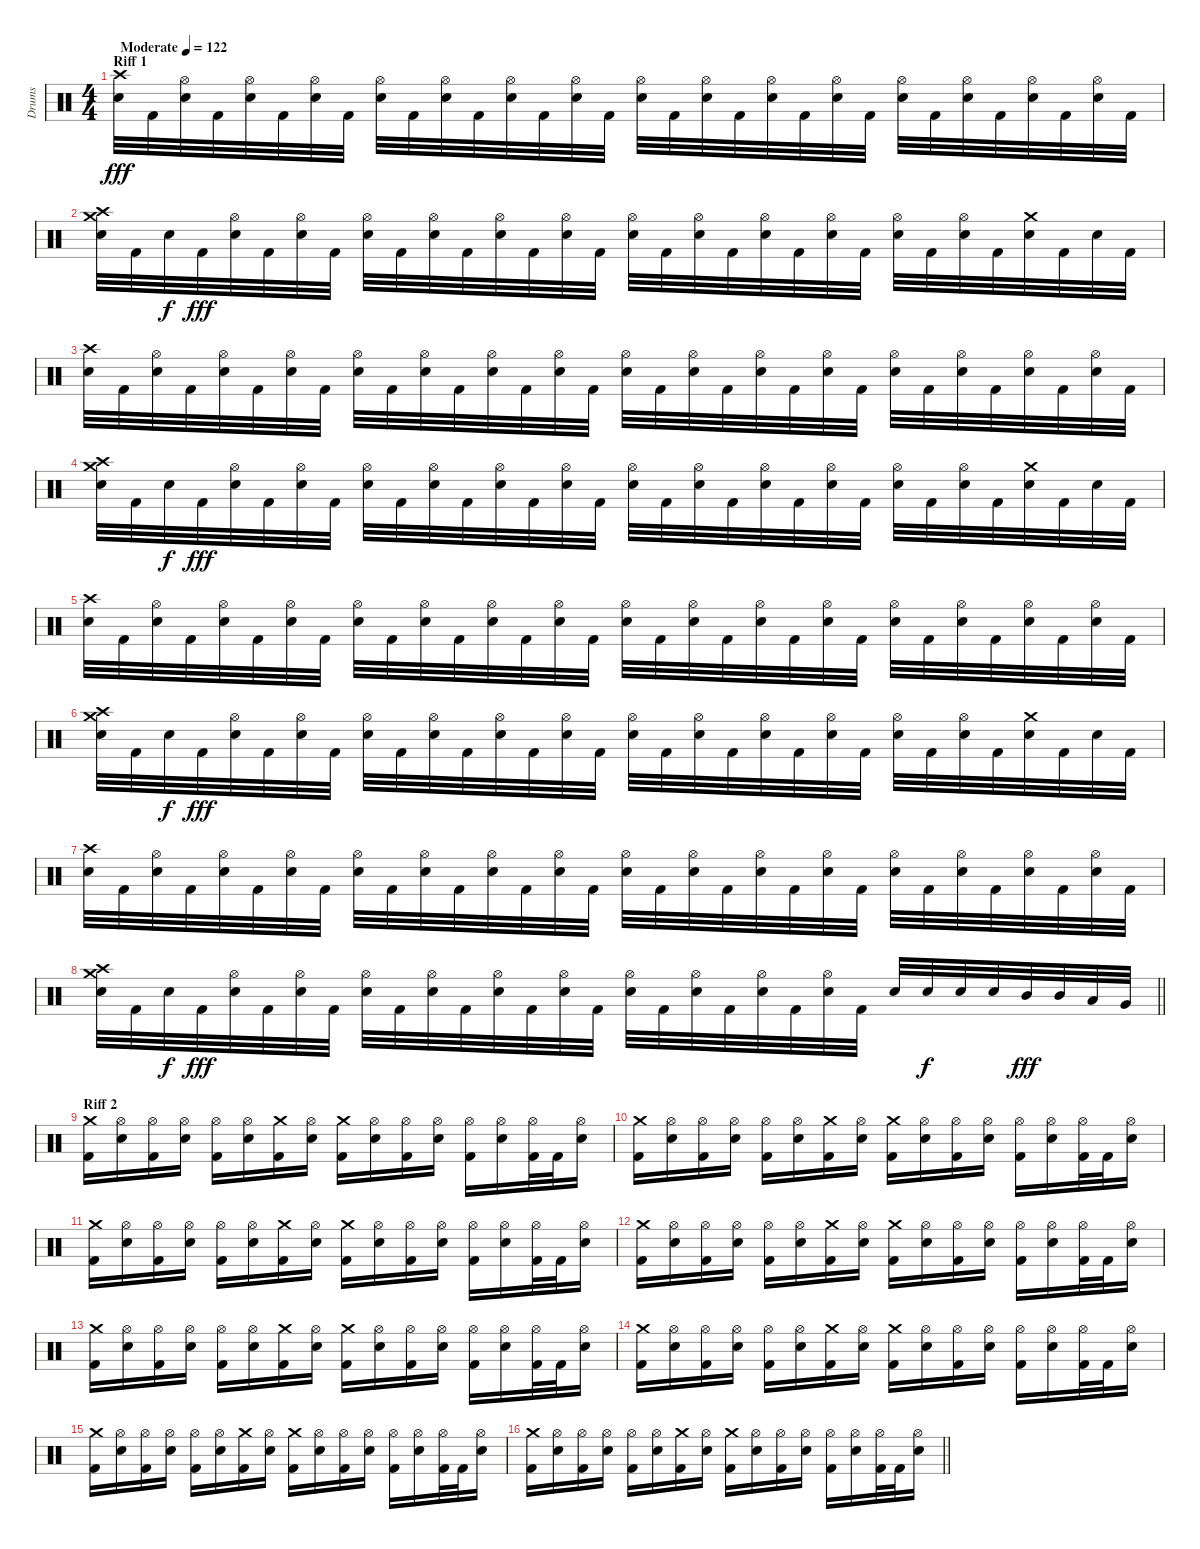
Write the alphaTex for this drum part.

\track ("Drums" "Drums") {instrument percussion}
\staff {score}
\articulation defaults
\ts (4 4)
\section ("" "Riff 1")
\tempo (122 "Moderate")
\clef neutral
\ks c
("Snare (hit) 2" "Crash high (hit)").32{dy fff} "Kick (hit) 2".32 ("Snare (hit) 2" "Hi-Hat (open)").32 "Kick (hit) 2".32 ("Hi-Hat (open)" "Snare (hit) 2").32 "Kick (hit) 2".32 ("Snare (hit) 2" "Hi-Hat (open)").32 "Kick (hit) 2".32 ("Hi-Hat (open)" "Snare (hit) 2").32 "Kick (hit) 2".32 ("Snare (hit) 2" "Hi-Hat (open)").32 "Kick (hit) 2".32 ("Snare (hit) 2" "Hi-Hat (open)").32 "Kick (hit) 2".32 ("Hi-Hat (open)" "Snare (hit) 2").32 "Kick (hit) 2".32 ("Snare (hit) 2" "Hi-Hat (open)").32 "Kick (hit) 2".32 ("Hi-Hat (open)" "Snare (hit) 2").32 "Kick (hit) 2".32 ("Snare (hit) 2" "Hi-Hat (open)").32 "Kick (hit) 2".32 ("Snare (hit) 2" "Hi-Hat (open)").32 "Kick (hit) 2".32 ("Hi-Hat (open)" "Snare (hit) 2").32 "Kick (hit) 2".32 ("Snare (hit) 2" "Hi-Hat (open)").32 "Kick (hit) 2".32 ("Hi-Hat (open)" "Snare (hit) 2").32 "Kick (hit) 2".32 ("Snare (hit) 2" "Hi-Hat (open)").32 "Kick (hit) 2".32 |
("Snare (hit) 2" "Crash high (hit)" "Crash medium (hit)").32 "Kick (hit) 2".32 "Snare (hit) 2".32{dy f} "Kick (hit) 2".32{dy fff} ("Snare (hit) 2" "Hi-Hat (open)").32 "Kick (hit) 2".32 ("Hi-Hat (open)" "Snare (hit) 2").32 "Kick (hit) 2".32 ("Snare (hit) 2" "Hi-Hat (open)").32 "Kick (hit) 2".32 ("Snare (hit) 2" "Hi-Hat (open)").32 "Kick (hit) 2".32 ("Hi-Hat (open)" "Snare (hit) 2").32 "Kick (hit) 2".32 ("Snare (hit) 2" "Hi-Hat (open)").32 "Kick (hit) 2".32 ("Hi-Hat (open)" "Snare (hit) 2").32 "Kick (hit) 2".32 ("Snare (hit) 2" "Hi-Hat (open)").32 "Kick (hit) 2".32 ("Snare (hit) 2" "Hi-Hat (open)").32 "Kick (hit) 2".32 ("Hi-Hat (open)" "Snare (hit) 2").32 "Kick (hit) 2".32 ("Snare (hit) 2" "Hi-Hat (open)").32 "Kick (hit) 2".32 ("Hi-Hat (open)" "Snare (hit) 2").32 "Kick (hit) 2".32 ("Snare (hit) 2" "Crash medium (hit)").32 "Kick (hit) 2".32 "Snare (hit) 2".32 "Kick (hit) 2".32 |
("Snare (hit) 2" "Crash high (hit)").32 "Kick (hit) 2".32 ("Snare (hit) 2" "Hi-Hat (open)").32 "Kick (hit) 2".32 ("Hi-Hat (open)" "Snare (hit) 2").32 "Kick (hit) 2".32 ("Snare (hit) 2" "Hi-Hat (open)").32 "Kick (hit) 2".32 ("Hi-Hat (open)" "Snare (hit) 2").32 "Kick (hit) 2".32 ("Snare (hit) 2" "Hi-Hat (open)").32 "Kick (hit) 2".32 ("Snare (hit) 2" "Hi-Hat (open)").32 "Kick (hit) 2".32 ("Hi-Hat (open)" "Snare (hit) 2").32 "Kick (hit) 2".32 ("Snare (hit) 2" "Hi-Hat (open)").32 "Kick (hit) 2".32 ("Hi-Hat (open)" "Snare (hit) 2").32 "Kick (hit) 2".32 ("Snare (hit) 2" "Hi-Hat (open)").32 "Kick (hit) 2".32 ("Snare (hit) 2" "Hi-Hat (open)").32 "Kick (hit) 2".32 ("Hi-Hat (open)" "Snare (hit) 2").32 "Kick (hit) 2".32 ("Snare (hit) 2" "Hi-Hat (open)").32 "Kick (hit) 2".32 ("Hi-Hat (open)" "Snare (hit) 2").32 "Kick (hit) 2".32 ("Snare (hit) 2" "Hi-Hat (open)").32 "Kick (hit) 2".32 |
("Snare (hit) 2" "Crash high (hit)" "Crash medium (hit)").32 "Kick (hit) 2".32 "Snare (hit) 2".32{dy f} "Kick (hit) 2".32{dy fff} ("Snare (hit) 2" "Hi-Hat (open)").32 "Kick (hit) 2".32 ("Hi-Hat (open)" "Snare (hit) 2").32 "Kick (hit) 2".32 ("Snare (hit) 2" "Hi-Hat (open)").32 "Kick (hit) 2".32 ("Snare (hit) 2" "Hi-Hat (open)").32 "Kick (hit) 2".32 ("Hi-Hat (open)" "Snare (hit) 2").32 "Kick (hit) 2".32 ("Snare (hit) 2" "Hi-Hat (open)").32 "Kick (hit) 2".32 ("Hi-Hat (open)" "Snare (hit) 2").32 "Kick (hit) 2".32 ("Snare (hit) 2" "Hi-Hat (open)").32 "Kick (hit) 2".32 ("Snare (hit) 2" "Hi-Hat (open)").32 "Kick (hit) 2".32 ("Hi-Hat (open)" "Snare (hit) 2").32 "Kick (hit) 2".32 ("Snare (hit) 2" "Hi-Hat (open)").32 "Kick (hit) 2".32 ("Hi-Hat (open)" "Snare (hit) 2").32 "Kick (hit) 2".32 ("Snare (hit) 2" "Crash medium (hit)").32 "Kick (hit) 2".32 "Snare (hit) 2".32 "Kick (hit) 2".32 |
("Snare (hit) 2" "Crash high (hit)").32 "Kick (hit) 2".32 ("Snare (hit) 2" "Hi-Hat (open)").32 "Kick (hit) 2".32 ("Hi-Hat (open)" "Snare (hit) 2").32 "Kick (hit) 2".32 ("Snare (hit) 2" "Hi-Hat (open)").32 "Kick (hit) 2".32 ("Hi-Hat (open)" "Snare (hit) 2").32 "Kick (hit) 2".32 ("Snare (hit) 2" "Hi-Hat (open)").32 "Kick (hit) 2".32 ("Snare (hit) 2" "Hi-Hat (open)").32 "Kick (hit) 2".32 ("Hi-Hat (open)" "Snare (hit) 2").32 "Kick (hit) 2".32 ("Snare (hit) 2" "Hi-Hat (open)").32 "Kick (hit) 2".32 ("Hi-Hat (open)" "Snare (hit) 2").32 "Kick (hit) 2".32 ("Snare (hit) 2" "Hi-Hat (open)").32 "Kick (hit) 2".32 ("Snare (hit) 2" "Hi-Hat (open)").32 "Kick (hit) 2".32 ("Hi-Hat (open)" "Snare (hit) 2").32 "Kick (hit) 2".32 ("Snare (hit) 2" "Hi-Hat (open)").32 "Kick (hit) 2".32 ("Hi-Hat (open)" "Snare (hit) 2").32 "Kick (hit) 2".32 ("Snare (hit) 2" "Hi-Hat (open)").32 "Kick (hit) 2".32 |
("Snare (hit) 2" "Crash high (hit)" "Crash medium (hit)").32 "Kick (hit) 2".32 "Snare (hit) 2".32{dy f} "Kick (hit) 2".32{dy fff} ("Snare (hit) 2" "Hi-Hat (open)").32 "Kick (hit) 2".32 ("Hi-Hat (open)" "Snare (hit) 2").32 "Kick (hit) 2".32 ("Snare (hit) 2" "Hi-Hat (open)").32 "Kick (hit) 2".32 ("Snare (hit) 2" "Hi-Hat (open)").32 "Kick (hit) 2".32 ("Hi-Hat (open)" "Snare (hit) 2").32 "Kick (hit) 2".32 ("Snare (hit) 2" "Hi-Hat (open)").32 "Kick (hit) 2".32 ("Hi-Hat (open)" "Snare (hit) 2").32 "Kick (hit) 2".32 ("Snare (hit) 2" "Hi-Hat (open)").32 "Kick (hit) 2".32 ("Snare (hit) 2" "Hi-Hat (open)").32 "Kick (hit) 2".32 ("Hi-Hat (open)" "Snare (hit) 2").32 "Kick (hit) 2".32 ("Snare (hit) 2" "Hi-Hat (open)").32 "Kick (hit) 2".32 ("Hi-Hat (open)" "Snare (hit) 2").32 "Kick (hit) 2".32 ("Snare (hit) 2" "Crash medium (hit)").32 "Kick (hit) 2".32 "Snare (hit) 2".32 "Kick (hit) 2".32 |
("Snare (hit) 2" "Crash high (hit)").32 "Kick (hit) 2".32 ("Snare (hit) 2" "Hi-Hat (open)").32 "Kick (hit) 2".32 ("Hi-Hat (open)" "Snare (hit) 2").32 "Kick (hit) 2".32 ("Snare (hit) 2" "Hi-Hat (open)").32 "Kick (hit) 2".32 ("Hi-Hat (open)" "Snare (hit) 2").32 "Kick (hit) 2".32 ("Snare (hit) 2" "Hi-Hat (open)").32 "Kick (hit) 2".32 ("Snare (hit) 2" "Hi-Hat (open)").32 "Kick (hit) 2".32 ("Hi-Hat (open)" "Snare (hit) 2").32 "Kick (hit) 2".32 ("Snare (hit) 2" "Hi-Hat (open)").32 "Kick (hit) 2".32 ("Hi-Hat (open)" "Snare (hit) 2").32 "Kick (hit) 2".32 ("Snare (hit) 2" "Hi-Hat (open)").32 "Kick (hit) 2".32 ("Snare (hit) 2" "Hi-Hat (open)").32 "Kick (hit) 2".32 ("Hi-Hat (open)" "Snare (hit) 2").32 "Kick (hit) 2".32 ("Snare (hit) 2" "Hi-Hat (open)").32 "Kick (hit) 2".32 ("Hi-Hat (open)" "Snare (hit) 2").32 "Kick (hit) 2".32 ("Snare (hit) 2" "Hi-Hat (open)").32 "Kick (hit) 2".32 |
\barLineRight lightlight
("Snare (hit) 2" "Crash high (hit)" "Crash medium (hit)").32 "Kick (hit) 2".32 "Snare (hit) 2".32{dy f} "Kick (hit) 2".32{dy fff} ("Snare (hit) 2" "Hi-Hat (open)").32 "Kick (hit) 2".32 ("Hi-Hat (open)" "Snare (hit) 2").32 "Kick (hit) 2".32 ("Snare (hit) 2" "Hi-Hat (open)").32 "Kick (hit) 2".32 ("Snare (hit) 2" "Hi-Hat (open)").32 "Kick (hit) 2".32 ("Hi-Hat (open)" "Snare (hit) 2").32 "Kick (hit) 2".32 ("Snare (hit) 2" "Hi-Hat (open)").32 "Kick (hit) 2".32 ("Hi-Hat (open)" "Snare (hit) 2").32 "Kick (hit) 2".32 ("Snare (hit) 2" "Hi-Hat (open)").32 "Kick (hit) 2".32 ("Snare (hit) 2" "Hi-Hat (open)").32 "Kick (hit) 2".32 ("Hi-Hat (open)" "Snare (hit) 2").32 "Kick (hit) 2".32 "Snare (hit) 2".32 "Snare (hit) 2".32{dy f} "Snare (hit) 2".32 "Snare (hit) 2".32 "Mid Tom (hit)".32{dy fff} "Mid Tom (hit)".32 "Low Tom (hit)".32 "Very Low Tom (hit)".32 |
\section ("" "Riff 2")
("Kick (hit) 2" "Crash medium (hit)").16 ("Snare (hit) 2" "Hi-Hat (open)").16 ("Kick (hit) 2" "Hi-Hat (open)").16 ("Snare (hit) 2" "Hi-Hat (open)").16 ("Kick (hit) 2" "Hi-Hat (open)").16 ("Snare (hit) 2" "Hi-Hat (open)").16 ("Kick (hit) 2" "Crash medium (hit)").16 ("Snare (hit) 2" "Hi-Hat (open)").16 ("Kick (hit) 2" "Crash medium (hit)").16 ("Snare (hit) 2" "Hi-Hat (open)").16 ("Kick (hit) 2" "Hi-Hat (open)").16 ("Snare (hit) 2" "Hi-Hat (open)").16 ("Kick (hit) 2" "Hi-Hat (open)").16 ("Snare (hit) 2" "Hi-Hat (open)").16 ("Kick (hit) 2" "Hi-Hat (open)").32 "Kick (hit) 2".32 ("Snare (hit) 2" "Hi-Hat (open)").16 |
("Kick (hit) 2" "Crash medium (hit)").16 ("Snare (hit) 2" "Hi-Hat (open)").16 ("Kick (hit) 2" "Hi-Hat (open)").16 ("Snare (hit) 2" "Hi-Hat (open)").16 ("Kick (hit) 2" "Hi-Hat (open)").16 ("Snare (hit) 2" "Hi-Hat (open)").16 ("Kick (hit) 2" "Crash medium (hit)").16 ("Snare (hit) 2" "Hi-Hat (open)").16 ("Kick (hit) 2" "Crash medium (hit)").16 ("Snare (hit) 2" "Hi-Hat (open)").16 ("Kick (hit) 2" "Hi-Hat (open)").16 ("Snare (hit) 2" "Hi-Hat (open)").16 ("Kick (hit) 2" "Hi-Hat (open)").16 ("Snare (hit) 2" "Hi-Hat (open)").16 ("Kick (hit) 2" "Hi-Hat (open)").32 "Kick (hit) 2".32 ("Snare (hit) 2" "Hi-Hat (open)").16 |
("Kick (hit) 2" "Crash medium (hit)").16 ("Snare (hit) 2" "Hi-Hat (open)").16 ("Kick (hit) 2" "Hi-Hat (open)").16 ("Snare (hit) 2" "Hi-Hat (open)").16 ("Kick (hit) 2" "Hi-Hat (open)").16 ("Snare (hit) 2" "Hi-Hat (open)").16 ("Kick (hit) 2" "Crash medium (hit)").16 ("Snare (hit) 2" "Hi-Hat (open)").16 ("Kick (hit) 2" "Crash medium (hit)").16 ("Snare (hit) 2" "Hi-Hat (open)").16 ("Kick (hit) 2" "Hi-Hat (open)").16 ("Snare (hit) 2" "Hi-Hat (open)").16 ("Kick (hit) 2" "Hi-Hat (open)").16 ("Snare (hit) 2" "Hi-Hat (open)").16 ("Kick (hit) 2" "Hi-Hat (open)").32 "Kick (hit) 2".32 ("Snare (hit) 2" "Hi-Hat (open)").16 |
("Kick (hit) 2" "Crash medium (hit)").16 ("Snare (hit) 2" "Hi-Hat (open)").16 ("Kick (hit) 2" "Hi-Hat (open)").16 ("Snare (hit) 2" "Hi-Hat (open)").16 ("Kick (hit) 2" "Hi-Hat (open)").16 ("Snare (hit) 2" "Hi-Hat (open)").16 ("Kick (hit) 2" "Crash medium (hit)").16 ("Snare (hit) 2" "Hi-Hat (open)").16 ("Kick (hit) 2" "Crash medium (hit)").16 ("Snare (hit) 2" "Hi-Hat (open)").16 ("Kick (hit) 2" "Hi-Hat (open)").16 ("Snare (hit) 2" "Hi-Hat (open)").16 ("Kick (hit) 2" "Hi-Hat (open)").16 ("Snare (hit) 2" "Hi-Hat (open)").16 ("Kick (hit) 2" "Hi-Hat (open)").32 "Kick (hit) 2".32 ("Snare (hit) 2" "Hi-Hat (open)").16 |
("Kick (hit) 2" "Crash medium (hit)").16 ("Snare (hit) 2" "Hi-Hat (open)").16 ("Kick (hit) 2" "Hi-Hat (open)").16 ("Snare (hit) 2" "Hi-Hat (open)").16 ("Kick (hit) 2" "Hi-Hat (open)").16 ("Snare (hit) 2" "Hi-Hat (open)").16 ("Kick (hit) 2" "Crash medium (hit)").16 ("Snare (hit) 2" "Hi-Hat (open)").16 ("Kick (hit) 2" "Crash medium (hit)").16 ("Snare (hit) 2" "Hi-Hat (open)").16 ("Kick (hit) 2" "Hi-Hat (open)").16 ("Snare (hit) 2" "Hi-Hat (open)").16 ("Kick (hit) 2" "Hi-Hat (open)").16 ("Snare (hit) 2" "Hi-Hat (open)").16 ("Kick (hit) 2" "Hi-Hat (open)").32 "Kick (hit) 2".32 ("Snare (hit) 2" "Hi-Hat (open)").16 |
("Kick (hit) 2" "Crash medium (hit)").16 ("Snare (hit) 2" "Hi-Hat (open)").16 ("Kick (hit) 2" "Hi-Hat (open)").16 ("Snare (hit) 2" "Hi-Hat (open)").16 ("Kick (hit) 2" "Hi-Hat (open)").16 ("Snare (hit) 2" "Hi-Hat (open)").16 ("Kick (hit) 2" "Crash medium (hit)").16 ("Snare (hit) 2" "Hi-Hat (open)").16 ("Kick (hit) 2" "Crash medium (hit)").16 ("Snare (hit) 2" "Hi-Hat (open)").16 ("Kick (hit) 2" "Hi-Hat (open)").16 ("Snare (hit) 2" "Hi-Hat (open)").16 ("Kick (hit) 2" "Hi-Hat (open)").16 ("Snare (hit) 2" "Hi-Hat (open)").16 ("Kick (hit) 2" "Hi-Hat (open)").32 "Kick (hit) 2".32 ("Snare (hit) 2" "Hi-Hat (open)").16 |
("Kick (hit) 2" "Crash medium (hit)").16 ("Snare (hit) 2" "Hi-Hat (open)").16 ("Kick (hit) 2" "Hi-Hat (open)").16 ("Snare (hit) 2" "Hi-Hat (open)").16 ("Kick (hit) 2" "Hi-Hat (open)").16 ("Snare (hit) 2" "Hi-Hat (open)").16 ("Kick (hit) 2" "Crash medium (hit)").16 ("Snare (hit) 2" "Hi-Hat (open)").16 ("Kick (hit) 2" "Crash medium (hit)").16 ("Snare (hit) 2" "Hi-Hat (open)").16 ("Kick (hit) 2" "Hi-Hat (open)").16 ("Snare (hit) 2" "Hi-Hat (open)").16 ("Kick (hit) 2" "Hi-Hat (open)").16 ("Snare (hit) 2" "Hi-Hat (open)").16 ("Kick (hit) 2" "Hi-Hat (open)").32 "Kick (hit) 2".32 ("Snare (hit) 2" "Hi-Hat (open)").16 |
\barLineRight lightlight
("Kick (hit) 2" "Crash medium (hit)").16 ("Snare (hit) 2" "Hi-Hat (open)").16 ("Kick (hit) 2" "Hi-Hat (open)").16 ("Snare (hit) 2" "Hi-Hat (open)").16 ("Kick (hit) 2" "Hi-Hat (open)").16 ("Snare (hit) 2" "Hi-Hat (open)").16 ("Kick (hit) 2" "Crash medium (hit)").16 ("Snare (hit) 2" "Hi-Hat (open)").16 ("Kick (hit) 2" "Crash medium (hit)").16 ("Snare (hit) 2" "Hi-Hat (open)").16 ("Kick (hit) 2" "Hi-Hat (open)").16 ("Snare (hit) 2" "Hi-Hat (open)").16 ("Kick (hit) 2" "Hi-Hat (open)").16 ("Snare (hit) 2" "Hi-Hat (open)").16 ("Kick (hit) 2" "Hi-Hat (open)").32 "Kick (hit) 2".32 ("Snare (hit) 2" "Hi-Hat (open)").16
